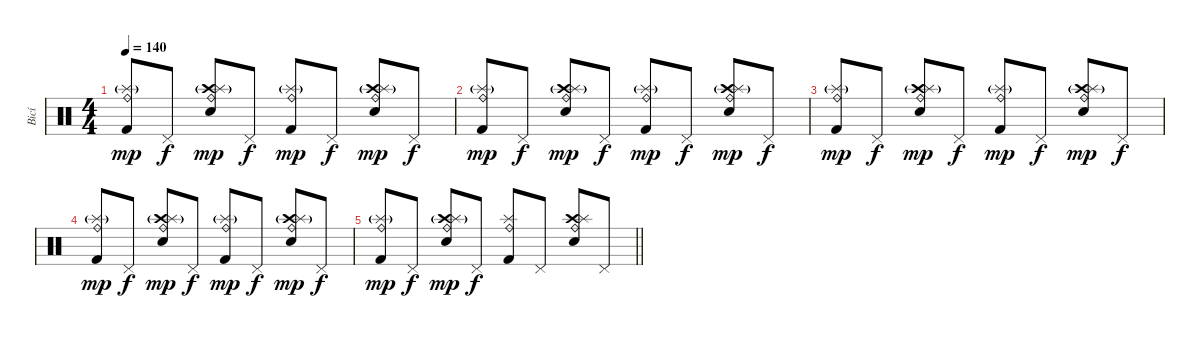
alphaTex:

\track ("Bicí" "Bicí") {instrument percussion}
\staff {score}
\articulation defaults
\ts (4 4)
\tempo 140
\clef neutral
\ks c
("Ride (bell)" "Splash (hit)"{g} "Kick (hit) 2").8{dy mp} "Pedal Hi-Hat (hit)".8{dy f} ("Crash high (hit)" "Ride (bell)" "Splash (hit)"{g} "Electric Snare (hit)").8{dy mp} "Pedal Hi-Hat (hit)".8{dy f} ("Ride (bell)" "Splash (hit)"{g} "Kick (hit) 2").8{dy mp} "Pedal Hi-Hat (hit)".8{dy f} ("Crash high (hit)" "Ride (bell)" "Splash (hit)"{g} "Electric Snare (hit)").8{dy mp} "Pedal Hi-Hat (hit)".8{dy f} |
("Ride (bell)" "Splash (hit)"{g} "Kick (hit) 2").8{dy mp} "Pedal Hi-Hat (hit)".8{dy f} ("Crash high (hit)" "Ride (bell)" "Splash (hit)"{g} "Electric Snare (hit)").8{dy mp} "Pedal Hi-Hat (hit)".8{dy f} ("Ride (bell)" "Splash (hit)"{g} "Kick (hit) 2").8{dy mp} "Pedal Hi-Hat (hit)".8{dy f} ("Crash high (hit)" "Ride (bell)" "Splash (hit)"{g} "Electric Snare (hit)").8{dy mp} "Pedal Hi-Hat (hit)".8{dy f} |
("Ride (bell)" "Splash (hit)"{g} "Kick (hit) 2").8{dy mp} "Pedal Hi-Hat (hit)".8{dy f} ("Crash high (hit)" "Ride (bell)" "Splash (hit)"{g} "Electric Snare (hit)").8{dy mp} "Pedal Hi-Hat (hit)".8{dy f} ("Ride (bell)" "Splash (hit)"{g} "Kick (hit) 2").8{dy mp} "Pedal Hi-Hat (hit)".8{dy f} ("Crash high (hit)" "Ride (bell)" "Splash (hit)"{g} "Electric Snare (hit)").8{dy mp} "Pedal Hi-Hat (hit)".8{dy f} |
("Ride (bell)" "Splash (hit)"{g} "Kick (hit) 2").8{dy mp} "Pedal Hi-Hat (hit)".8{dy f} ("Crash high (hit)" "Ride (bell)" "Splash (hit)"{g} "Electric Snare (hit)").8{dy mp} "Pedal Hi-Hat (hit)".8{dy f} ("Ride (bell)" "Splash (hit)"{g} "Kick (hit) 2").8{dy mp} "Pedal Hi-Hat (hit)".8{dy f} ("Crash high (hit)" "Ride (bell)" "Splash (hit)"{g} "Electric Snare (hit)").8{dy mp} "Pedal Hi-Hat (hit)".8{dy f} |
\barLineRight lightlight
("Ride (bell)" "Splash (hit)"{g} "Kick (hit) 2").8{dy mp} "Pedal Hi-Hat (hit)".8{dy f} ("Crash high (hit)" "Ride (bell)" "Splash (hit)"{g} "Electric Snare (hit)").8{dy mp} "Pedal Hi-Hat (hit)".8{dy f} ("Ride (bell)" "Splash (hit)" "Kick (hit) 2").8 "Pedal Hi-Hat (hit)".8 ("Crash high (hit)" "Ride (bell)" "Splash (hit)" "Electric Snare (hit)").8 "Pedal Hi-Hat (hit)".8
